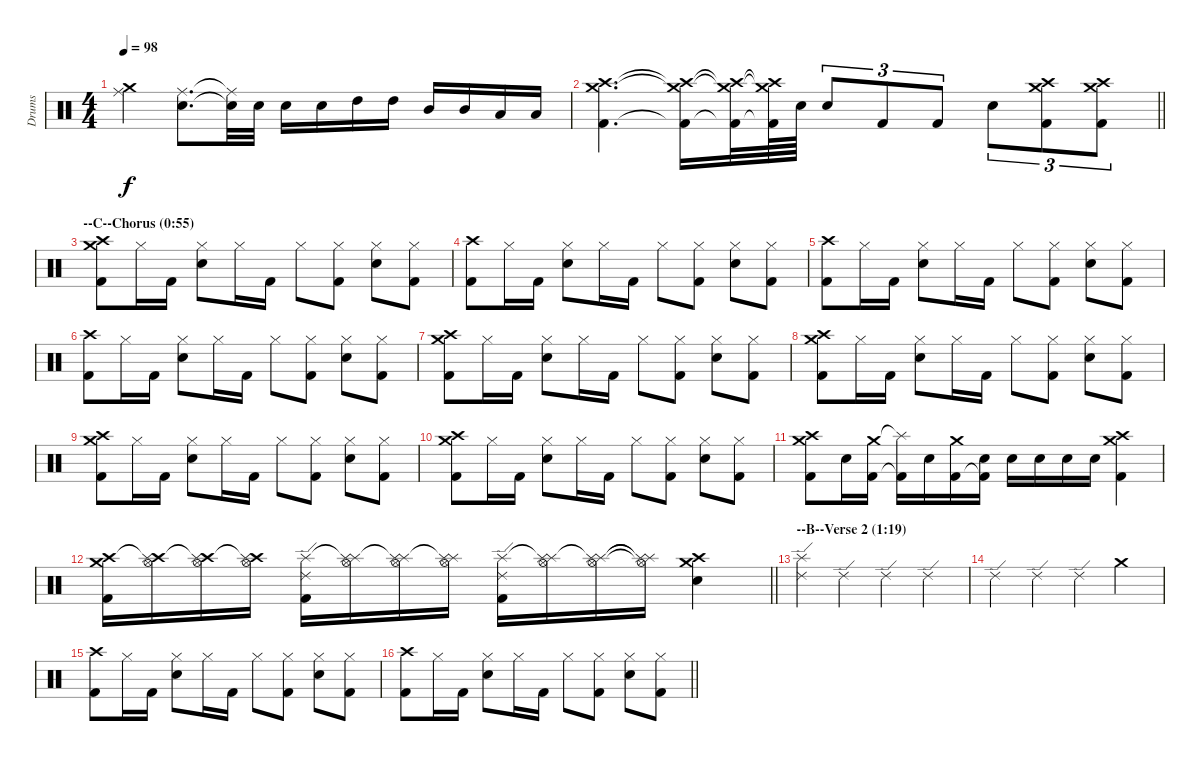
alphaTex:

\track ("Drums" "Drums") {instrument percussion}
\staff {score}
\articulation defaults
\ts (4 4)
\tempo 98
\clef neutral
\ks c
("Crash medium (hit)" "Ride (middle)").4{dy f} ("Electric Snare (hit)" "Ride (middle)").8{d} ("Electric Snare (hit)"{t} "Ride (middle)"{t}).32 "Electric Snare (hit)".32 "Electric Snare (hit)".16 "Electric Snare (hit)".16 "High Tom (hit)".16 "High Tom (hit)".16 "Mid Tom (hit)".16 "Mid Tom (hit)".16 "Low Tom (hit)".16 "Low Tom (hit)".16 |
\barLineRight lightlight
("Crash high (hit)" "Crash medium (hit)" "Kick (hit) 2").4{d} ("Crash high (hit)"{t} "Crash medium (hit)"{t} "Kick (hit) 2"{t}).16 ("Crash high (hit)"{t} "Crash medium (hit)"{t} "Kick (hit) 2"{t}).32 ("Crash high (hit)"{t} "Crash medium (hit)"{t} "Kick (hit) 2"{t}).64 "Electric Snare (hit)".64 "Electric Snare (hit)".8{tu (3 2)} "Kick (hit) 2".8{tu (3 2)} "Kick (hit) 2".8{tu (3 2)} "Electric Snare (hit)".8{tu (3 2)} ("Kick (hit) 2" "Crash high (hit)" "Crash medium (hit)").8{tu (3 2)} ("Kick (hit) 2" "Crash high (hit)" "Crash medium (hit)").8{tu (3 2)} |
\section ("" "--C--Chorus (0:55)")
("Crash high (hit)" "Crash medium (hit)" "Kick (hit) 2").8 "Hi-Hat (closed)".16 "Kick (hit) 2".16 ("Hi-Hat (closed)" "Electric Snare (hit)").8 "Hi-Hat (closed)".16 "Kick (hit) 2".16 "Hi-Hat (closed)".8 ("Hi-Hat (closed)" "Kick (hit) 2").8 ("Hi-Hat (closed)" "Electric Snare (hit)").8 ("Hi-Hat (closed)" "Kick (hit) 2").8 |
("Crash high (hit)" "Kick (hit) 2").8 "Hi-Hat (closed)".16 "Kick (hit) 2".16 ("Hi-Hat (closed)" "Electric Snare (hit)").8 "Hi-Hat (closed)".16 "Kick (hit) 2".16 "Hi-Hat (closed)".8 ("Hi-Hat (closed)" "Kick (hit) 2").8 ("Hi-Hat (closed)" "Electric Snare (hit)").8 ("Hi-Hat (closed)" "Kick (hit) 2").8 |
("Crash high (hit)" "Kick (hit) 2").8 "Hi-Hat (closed)".16 "Kick (hit) 2".16 ("Hi-Hat (closed)" "Electric Snare (hit)").8 "Hi-Hat (closed)".16 "Kick (hit) 2".16 "Hi-Hat (closed)".8 ("Hi-Hat (closed)" "Kick (hit) 2").8 ("Hi-Hat (closed)" "Electric Snare (hit)").8 ("Hi-Hat (closed)" "Kick (hit) 2").8 |
("Crash high (hit)" "Kick (hit) 2").8 "Hi-Hat (closed)".16 "Kick (hit) 2".16 ("Hi-Hat (closed)" "Electric Snare (hit)").8 "Hi-Hat (closed)".16 "Kick (hit) 2".16 "Hi-Hat (closed)".8 ("Hi-Hat (closed)" "Kick (hit) 2").8 ("Hi-Hat (closed)" "Electric Snare (hit)").8 ("Hi-Hat (closed)" "Kick (hit) 2").8 |
("Crash high (hit)" "Crash medium (hit)" "Kick (hit) 2").8 "Hi-Hat (closed)".16 "Kick (hit) 2".16 ("Hi-Hat (closed)" "Electric Snare (hit)").8 "Hi-Hat (closed)".16 "Kick (hit) 2".16 "Hi-Hat (closed)".8 ("Hi-Hat (closed)" "Kick (hit) 2").8 ("Hi-Hat (closed)" "Electric Snare (hit)").8 ("Hi-Hat (closed)" "Kick (hit) 2").8 |
("Crash high (hit)" "Crash medium (hit)" "Kick (hit) 2").8 "Hi-Hat (closed)".16 "Kick (hit) 2".16 ("Hi-Hat (closed)" "Electric Snare (hit)").8 "Hi-Hat (closed)".16 "Kick (hit) 2".16 "Hi-Hat (closed)".8 ("Hi-Hat (closed)" "Kick (hit) 2").8 ("Hi-Hat (closed)" "Electric Snare (hit)").8 ("Hi-Hat (closed)" "Kick (hit) 2").8 |
("Crash high (hit)" "Crash medium (hit)" "Kick (hit) 2").8 "Hi-Hat (closed)".16 "Kick (hit) 2".16 ("Hi-Hat (closed)" "Electric Snare (hit)").8 "Hi-Hat (closed)".16 "Kick (hit) 2".16 "Hi-Hat (closed)".8 ("Hi-Hat (closed)" "Kick (hit) 2").8 ("Hi-Hat (closed)" "Electric Snare (hit)").8 ("Hi-Hat (closed)" "Kick (hit) 2").8 |
("Crash high (hit)" "Crash medium (hit)" "Kick (hit) 2").8 "Hi-Hat (closed)".16 "Kick (hit) 2".16 ("Hi-Hat (closed)" "Electric Snare (hit)").8 "Hi-Hat (closed)".16 "Kick (hit) 2".16 "Hi-Hat (closed)".8 ("Hi-Hat (closed)" "Kick (hit) 2").8 ("Hi-Hat (closed)" "Electric Snare (hit)").8 ("Hi-Hat (closed)" "Kick (hit) 2").8 |
("Crash high (hit)" "Crash medium (hit)" "Kick (hit) 2").8 "Electric Snare (hit)".16 ("Crash medium (hit)" "Kick (hit) 2").16 ("Splash (hit)"{t} "Kick (hit) 2"{t}).16 "Electric Snare (hit)".16 ("Crash medium (hit)" "Kick (hit) 2").16 ("Electric Snare (hit)" "Kick (hit) 2"{t}).16 "Electric Snare (hit)".16 "Electric Snare (hit)".16 "Electric Snare (hit)".16 "Electric Snare (hit)".16 ("Crash high (hit)" "Crash medium (hit)" "Kick (hit) 2").4 |
\barLineRight lightlight
("Crash high (hit)" "Crash medium (hit)" "Kick (hit) 2").16 ("Crash high (hit)"{t} "Hi-Hat (open)" "Splash (hit)").16 ("Crash high (hit)"{t} "Hi-Hat (open)" "Splash (hit)").16 ("Crash high (hit)"{t} "Hi-Hat (open)" "Splash (hit)").16 ("Splash (hit)" "Ride (edge) 2" "Kick (hit) 2").16 ("Splash (hit)"{t} "Hi-Hat (open)" "Splash (hit)").16 ("Splash (hit)"{t} "Hi-Hat (open)" "Splash (hit)").16 ("Splash (hit)"{t} "Hi-Hat (open)" "Splash (hit)").16 ("Splash (hit)" "Ride (edge) 2" "Kick (hit) 2").16 ("Splash (hit)"{t} "Hi-Hat (open)" "Splash (hit)").16 ("Splash (hit)"{t} "Hi-Hat (open)" "Splash (hit)").16 ("Splash (hit)"{t} "Hi-Hat (open)"{t} "Splash (hit)"{t}).16 ("Crash high (hit)" "Electric Snare (hit)" "Crash medium (hit)").4 |
\section ("" "--B--Verse 2 (1:19)")
("Ride (edge) 2" "Splash (hit)").4 "Ride (edge) 2".4 "Ride (edge) 2".4 "Ride (edge) 2".4 |
"Ride (edge) 2".4 "Ride (edge) 2".4 "Ride (edge) 2".4 "Crash medium (hit)".4 |
("Crash high (hit)" "Kick (hit) 2").8 "Hi-Hat (closed)".16 "Kick (hit) 2".16 ("Hi-Hat (closed)" "Electric Snare (hit)").8 "Hi-Hat (closed)".16 "Kick (hit) 2".16 "Hi-Hat (closed)".8 ("Hi-Hat (closed)" "Kick (hit) 2").8 ("Hi-Hat (closed)" "Electric Snare (hit)").8 ("Hi-Hat (closed)" "Kick (hit) 2").8 |
\barLineRight lightlight
("Crash high (hit)" "Kick (hit) 2").8 "Hi-Hat (closed)".16 "Kick (hit) 2".16 ("Hi-Hat (closed)" "Electric Snare (hit)").8 "Hi-Hat (closed)".16 "Kick (hit) 2".16 "Hi-Hat (closed)".8 ("Hi-Hat (closed)" "Kick (hit) 2").8 ("Hi-Hat (closed)" "Electric Snare (hit)").8 ("Hi-Hat (closed)" "Kick (hit) 2").8
